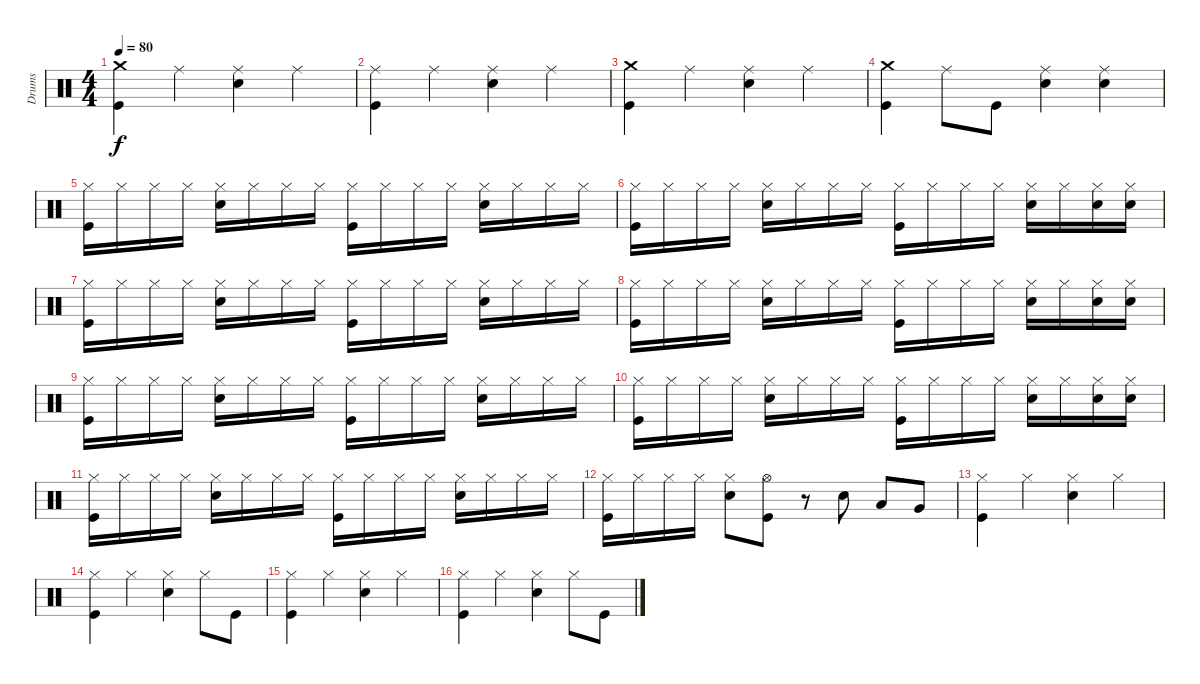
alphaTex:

\track ("Drums" "Drums") {instrument percussion}
\staff {score}
\articulation defaults
\ts (4 4)
\tempo 80
\clef neutral
\ks c
("Crash medium (hit)" "Kick (hit)").4{dy f} "Ride (middle)".4 ("Ride (middle)" "Snare (hit) 2").4 "Ride (middle)".4 |
("Ride (middle)" "Kick (hit)").4 "Ride (middle)".4 ("Ride (middle)" "Snare (hit) 2").4 "Ride (middle)".4 |
("Crash medium (hit)" "Kick (hit)").4 "Ride (middle)".4 ("Ride (middle)" "Snare (hit) 2").4 "Ride (middle)".4 |
("Crash medium (hit)" "Kick (hit)").4 "Ride (middle)".8 "Kick (hit)".8 ("Ride (middle)" "Snare (hit) 2").4 ("Ride (middle)" "Snare (hit) 2").4 |
("Hi-Hat (closed)" "Kick (hit)").16 "Hi-Hat (closed)".16 "Hi-Hat (closed)".16 "Hi-Hat (closed)".16 ("Hi-Hat (closed)" "Snare (hit) 2").16 "Hi-Hat (closed)".16 "Hi-Hat (closed)".16 "Hi-Hat (closed)".16 ("Hi-Hat (closed)" "Kick (hit)").16 "Hi-Hat (closed)".16 "Hi-Hat (closed)".16 "Hi-Hat (closed)".16 ("Hi-Hat (closed)" "Snare (hit) 2").16 "Hi-Hat (closed)".16 "Hi-Hat (closed)".16 "Hi-Hat (closed)".16 |
("Hi-Hat (closed)" "Kick (hit)").16 "Hi-Hat (closed)".16 "Hi-Hat (closed)".16 "Hi-Hat (closed)".16 ("Hi-Hat (closed)" "Snare (hit) 2").16 "Hi-Hat (closed)".16 "Hi-Hat (closed)".16 "Hi-Hat (closed)".16 ("Hi-Hat (closed)" "Kick (hit)").16 "Hi-Hat (closed)".16 "Hi-Hat (closed)".16 "Hi-Hat (closed)".16 ("Hi-Hat (closed)" "Snare (hit) 2").16 "Hi-Hat (closed)".16 ("Hi-Hat (closed)" "Snare (hit) 2").16 ("Hi-Hat (closed)" "Snare (hit) 2").16 |
("Hi-Hat (closed)" "Kick (hit)").16 "Hi-Hat (closed)".16 "Hi-Hat (closed)".16 "Hi-Hat (closed)".16 ("Hi-Hat (closed)" "Snare (hit) 2").16 "Hi-Hat (closed)".16 "Hi-Hat (closed)".16 "Hi-Hat (closed)".16 ("Hi-Hat (closed)" "Kick (hit)").16 "Hi-Hat (closed)".16 "Hi-Hat (closed)".16 "Hi-Hat (closed)".16 ("Hi-Hat (closed)" "Snare (hit) 2").16 "Hi-Hat (closed)".16 "Hi-Hat (closed)".16 "Hi-Hat (closed)".16 |
("Hi-Hat (closed)" "Kick (hit)").16 "Hi-Hat (closed)".16 "Hi-Hat (closed)".16 "Hi-Hat (closed)".16 ("Hi-Hat (closed)" "Snare (hit) 2").16 "Hi-Hat (closed)".16 "Hi-Hat (closed)".16 "Hi-Hat (closed)".16 ("Hi-Hat (closed)" "Kick (hit)").16 "Hi-Hat (closed)".16 "Hi-Hat (closed)".16 "Hi-Hat (closed)".16 ("Hi-Hat (closed)" "Snare (hit) 2").16 "Hi-Hat (closed)".16 ("Hi-Hat (closed)" "Snare (hit) 2").16 ("Hi-Hat (closed)" "Snare (hit) 2").16 |
("Hi-Hat (closed)" "Kick (hit)").16 "Hi-Hat (closed)".16 "Hi-Hat (closed)".16 "Hi-Hat (closed)".16 ("Hi-Hat (closed)" "Snare (hit) 2").16 "Hi-Hat (closed)".16 "Hi-Hat (closed)".16 "Hi-Hat (closed)".16 ("Hi-Hat (closed)" "Kick (hit)").16 "Hi-Hat (closed)".16 "Hi-Hat (closed)".16 "Hi-Hat (closed)".16 ("Hi-Hat (closed)" "Snare (hit) 2").16 "Hi-Hat (closed)".16 "Hi-Hat (closed)".16 "Hi-Hat (closed)".16 |
("Hi-Hat (closed)" "Kick (hit)").16 "Hi-Hat (closed)".16 "Hi-Hat (closed)".16 "Hi-Hat (closed)".16 ("Hi-Hat (closed)" "Snare (hit) 2").16 "Hi-Hat (closed)".16 "Hi-Hat (closed)".16 "Hi-Hat (closed)".16 ("Hi-Hat (closed)" "Kick (hit)").16 "Hi-Hat (closed)".16 "Hi-Hat (closed)".16 "Hi-Hat (closed)".16 ("Hi-Hat (closed)" "Snare (hit) 2").16 "Hi-Hat (closed)".16 ("Hi-Hat (closed)" "Snare (hit) 2").16 ("Hi-Hat (closed)" "Snare (hit) 2").16 |
("Hi-Hat (closed)" "Kick (hit)").16 "Hi-Hat (closed)".16 "Hi-Hat (closed)".16 "Hi-Hat (closed)".16 ("Hi-Hat (closed)" "Snare (hit) 2").16 "Hi-Hat (closed)".16 "Hi-Hat (closed)".16 "Hi-Hat (closed)".16 ("Hi-Hat (closed)" "Kick (hit)").16 "Hi-Hat (closed)".16 "Hi-Hat (closed)".16 "Hi-Hat (closed)".16 ("Hi-Hat (closed)" "Snare (hit) 2").16 "Hi-Hat (closed)".16 "Hi-Hat (closed)".16 "Hi-Hat (closed)".16 |
("Hi-Hat (closed)" "Kick (hit)").16 "Hi-Hat (closed)".16 "Hi-Hat (closed)".16 "Hi-Hat (closed)".16 ("Hi-Hat (closed)" "Snare (hit) 2").8 ("Hi-Hat (open)" "Kick (hit)").8 r.8 "Snare (hit) 2".8 "Low Tom (hit)".8 "Very Low Tom (hit)".8 |
("Hi-Hat (closed)" "Kick (hit)").4 "Hi-Hat (closed)".4 ("Hi-Hat (closed)" "Snare (hit) 2").4 "Hi-Hat (closed)".4 |
("Hi-Hat (closed)" "Kick (hit)").4 "Hi-Hat (closed)".4 ("Hi-Hat (closed)" "Snare (hit) 2").4 "Hi-Hat (closed)".8 "Kick (hit)".8 |
("Hi-Hat (closed)" "Kick (hit)").4 "Hi-Hat (closed)".4 ("Hi-Hat (closed)" "Snare (hit) 2").4 "Hi-Hat (closed)".4 |
("Hi-Hat (closed)" "Kick (hit)").4 "Hi-Hat (closed)".4 ("Hi-Hat (closed)" "Snare (hit) 2").4 "Hi-Hat (closed)".8 "Kick (hit)".8
